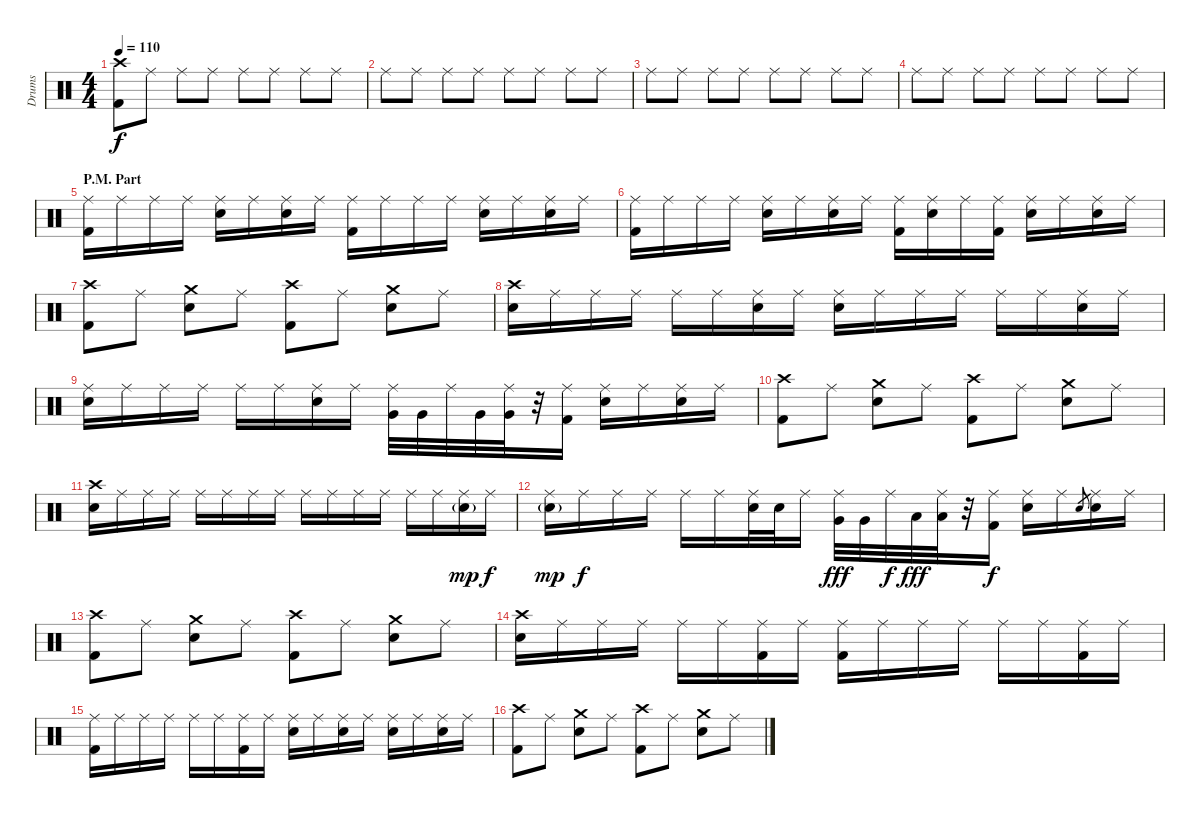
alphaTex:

\track ("Drums" "Drums") {instrument percussion}
\staff {score}
\articulation defaults
\ts (4 4)
\tempo 110
\clef neutral
\ks c
("Crash high (hit)" "Kick (hit) 2").8{dy f} "Ride (middle)".8 "Ride (middle)".8 "Ride (middle)".8 "Ride (middle)".8 "Ride (middle)".8 "Ride (middle)".8 "Ride (middle)".8 |
"Ride (middle)".8 "Ride (middle)".8 "Ride (middle)".8 "Ride (middle)".8 "Ride (middle)".8 "Ride (middle)".8 "Ride (middle)".8 "Ride (middle)".8 |
"Ride (middle)".8 "Ride (middle)".8 "Ride (middle)".8 "Ride (middle)".8 "Ride (middle)".8 "Ride (middle)".8 "Ride (middle)".8 "Ride (middle)".8 |
"Ride (middle)".8 "Ride (middle)".8 "Ride (middle)".8 "Ride (middle)".8 "Ride (middle)".8 "Ride (middle)".8 "Ride (middle)".8 "Ride (middle)".8 |
\section ("" "P.M. Part")
("Ride (middle)" "Kick (hit) 2").16 "Ride (middle)".16 "Ride (middle)".16 "Ride (middle)".16 ("Ride (middle)" "Electric Snare (hit)").16 "Ride (middle)".16 ("Ride (middle)" "Electric Snare (hit)").16 "Ride (middle)".16 ("Ride (middle)" "Kick (hit) 2").16 "Ride (middle)".16 "Ride (middle)".16 "Ride (middle)".16 ("Ride (middle)" "Electric Snare (hit)").16 "Ride (middle)".16 ("Ride (middle)" "Electric Snare (hit)").16 "Ride (middle)".16 |
("Ride (middle)" "Kick (hit) 2").16 "Ride (middle)".16 "Ride (middle)".16 "Ride (middle)".16 ("Ride (middle)" "Electric Snare (hit)").16 "Ride (middle)".16 ("Ride (middle)" "Electric Snare (hit)").16 "Ride (middle)".16 ("Ride (middle)" "Kick (hit) 2").16 ("Ride (middle)" "Electric Snare (hit)").16 "Ride (middle)".16 ("Ride (middle)" "Kick (hit) 2").16 ("Ride (middle)" "Electric Snare (hit)").16 "Ride (middle)".16 ("Ride (middle)" "Electric Snare (hit)").16 "Ride (middle)".16 |
("Crash high (hit)" "Kick (hit) 2").8 "Ride (middle)".8 ("Crash medium (hit)" "Electric Snare (hit)").8 "Ride (middle)".8 ("Crash high (hit)" "Kick (hit) 2").8 "Ride (middle)".8 ("Crash medium (hit)" "Electric Snare (hit)").8 "Ride (middle)".8 |
("Crash high (hit)" "Electric Snare (hit)").16 "Ride (middle)".16 "Ride (middle)".16 "Ride (middle)".16 "Ride (middle)".16 "Ride (middle)".16 ("Ride (middle)" "Electric Snare (hit)").16 "Ride (middle)".16 ("Ride (middle)" "Electric Snare (hit)").16 "Ride (middle)".16 "Ride (middle)".16 "Ride (middle)".16 "Ride (middle)".16 "Ride (middle)".16 ("Ride (middle)" "Electric Snare (hit)").16 "Ride (middle)".16 |
("Ride (middle)" "Electric Snare (hit)").16 "Ride (middle)".16 "Ride (middle)".16 "Ride (middle)".16 "Ride (middle)".16 "Ride (middle)".16 ("Ride (middle)" "Electric Snare (hit)").16 "Ride (middle)".16 ("Ride (middle)" "Very Low Tom (hit)").32 "Very Low Tom (hit)".32 "Ride (middle)".32 "Very Low Tom (hit)".32 ("Ride (middle)" "Very Low Tom (hit)").32 r.32 ("Ride (middle)" "Kick (hit) 2").16 ("Ride (middle)" "Electric Snare (hit)").16 "Ride (middle)".16 ("Ride (middle)" "Electric Snare (hit)").16 "Ride (middle)".16 |
("Crash high (hit)" "Kick (hit) 2").8 "Ride (middle)".8 ("Crash medium (hit)" "Electric Snare (hit)").8 "Ride (middle)".8 ("Crash high (hit)" "Kick (hit) 2").8 "Ride (middle)".8 ("Crash medium (hit)" "Electric Snare (hit)").8 "Ride (middle)".8 |
("Crash high (hit)" "Electric Snare (hit)").16 "Ride (middle)".16 "Ride (middle)".16 "Ride (middle)".16 "Ride (middle)".16 "Ride (middle)".16 "Ride (middle)".16 "Ride (middle)".16 "Ride (middle)".16 "Ride (middle)".16 "Ride (middle)".16 "Ride (middle)".16 "Ride (middle)".16 "Ride (middle)".16 ("Ride (middle)" "Electric Snare (hit)"{g}).16{dy mp} "Ride (middle)".16{dy f} |
("Ride (middle)" "Electric Snare (hit)"{g}).16{dy mp} "Ride (middle)".16{dy f} "Ride (middle)".16 "Ride (middle)".16 "Ride (middle)".16 "Ride (middle)".16 ("Ride (middle)" "Electric Snare (hit)").32 "Electric Snare (hit)".32 "Ride (middle)".16 ("Ride (middle)" "Very Low Tom (hit)").32{dy fff} "Very Low Tom (hit)".32 "Ride (middle)".32{dy f} "Low Floor Tom (hit)".32{dy fff} ("Ride (middle)" "Low Floor Tom (hit)").32 r.32 ("Ride (middle)" "Kick (hit) 2").16{dy f} ("Ride (middle)" "Electric Snare (hit)").16 "Ride (middle)".16 "Electric Snare (hit)".8{gr} ("Ride (middle)" "Electric Snare (hit)").16 "Ride (middle)".16 |
("Crash high (hit)" "Kick (hit) 2").8 "Ride (middle)".8 ("Crash medium (hit)" "Electric Snare (hit)").8 "Ride (middle)".8 ("Crash high (hit)" "Kick (hit) 2").8 "Ride (middle)".8 ("Crash medium (hit)" "Electric Snare (hit)").8 "Ride (middle)".8 |
("Crash high (hit)" "Electric Snare (hit)").16 "Ride (middle)".16 "Ride (middle)".16 "Ride (middle)".16 "Ride (middle)".16 "Ride (middle)".16 ("Ride (middle)" "Kick (hit) 2").16 "Ride (middle)".16 ("Ride (middle)" "Kick (hit) 2").16 "Ride (middle)".16 "Ride (middle)".16 "Ride (middle)".16 "Ride (middle)".16 "Ride (middle)".16 ("Ride (middle)" "Kick (hit) 2").16 "Ride (middle)".16 |
("Ride (middle)" "Kick (hit) 2").16 "Ride (middle)".16 "Ride (middle)".16 "Ride (middle)".16 "Ride (middle)".16 "Ride (middle)".16 ("Ride (middle)" "Kick (hit) 2").16 "Ride (middle)".16 ("Ride (middle)" "Electric Snare (hit)").16 "Ride (middle)".16 ("Ride (middle)" "Electric Snare (hit)").16 "Ride (middle)".16 ("Ride (middle)" "Electric Snare (hit)").16 "Ride (middle)".16 ("Ride (middle)" "Electric Snare (hit)").16 "Ride (middle)".16 |
("Crash high (hit)" "Kick (hit) 2").8 "Ride (middle)".8 ("Crash medium (hit)" "Electric Snare (hit)").8 "Ride (middle)".8 ("Crash high (hit)" "Kick (hit) 2").8 "Ride (middle)".8 ("Crash medium (hit)" "Electric Snare (hit)").8 "Ride (middle)".8
